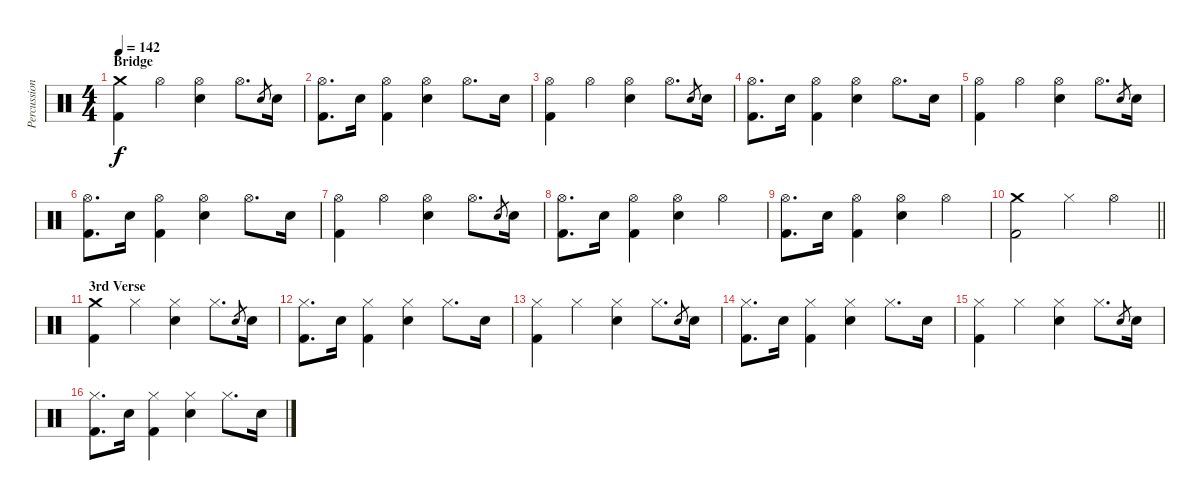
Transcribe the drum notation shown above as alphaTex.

\track ("Percussions" "Percussion") {instrument percussion}
\staff {score}
\articulation defaults
\ts (4 4)
\section ("" "Bridge")
\tempo 142
\clef neutral
\ks c
("Crash medium (hit)" "Kick (hit) 2").4{dy f} "Hi-Hat (open)".4 ("Hi-Hat (open)" "Electric Snare (hit)").4 "Hi-Hat (open)".8{d} "Electric Snare (hit)".8{gr} "Electric Snare (hit)".16 |
("Hi-Hat (open)" "Kick (hit) 2").8{d} "Electric Snare (hit)".16 ("Hi-Hat (open)" "Kick (hit) 2").4 ("Hi-Hat (open)" "Electric Snare (hit)").4 "Hi-Hat (open)".8{d} "Electric Snare (hit)".16 |
("Hi-Hat (open)" "Kick (hit) 2").4 "Hi-Hat (open)".4 ("Hi-Hat (open)" "Electric Snare (hit)").4 "Hi-Hat (open)".8{d} "Electric Snare (hit)".8{gr} "Electric Snare (hit)".16 |
("Hi-Hat (open)" "Kick (hit) 2").8{d} "Electric Snare (hit)".16 ("Hi-Hat (open)" "Kick (hit) 2").4 ("Hi-Hat (open)" "Electric Snare (hit)").4 "Hi-Hat (open)".8{d} "Electric Snare (hit)".16 |
("Hi-Hat (open)" "Kick (hit) 2").4 "Hi-Hat (open)".4 ("Hi-Hat (open)" "Electric Snare (hit)").4 "Hi-Hat (open)".8{d} "Electric Snare (hit)".8{gr} "Electric Snare (hit)".16 |
("Hi-Hat (open)" "Kick (hit) 2").8{d} "Electric Snare (hit)".16 ("Hi-Hat (open)" "Kick (hit) 2").4 ("Hi-Hat (open)" "Electric Snare (hit)").4 "Hi-Hat (open)".8{d} "Electric Snare (hit)".16 |
("Hi-Hat (open)" "Kick (hit) 2").4 "Hi-Hat (open)".4 ("Hi-Hat (open)" "Electric Snare (hit)").4 "Hi-Hat (open)".8{d} "Electric Snare (hit)".8{gr} "Electric Snare (hit)".16 |
("Hi-Hat (open)" "Kick (hit) 2").8{d} "Electric Snare (hit)".16 ("Hi-Hat (open)" "Kick (hit) 2").4 ("Hi-Hat (open)" "Electric Snare (hit)").4 "Hi-Hat (open)".4 |
("Hi-Hat (open)" "Kick (hit) 2").8{d} "Electric Snare (hit)".16 ("Hi-Hat (open)" "Kick (hit) 2").4 ("Hi-Hat (open)" "Electric Snare (hit)").4 "Hi-Hat (open)".4 |
\barLineRight lightlight
("Crash medium (hit)" "Kick (hit) 2").2 "Hi-Hat (closed)".4 "Hi-Hat (open)".4 |
\section ("" "3rd Verse")
("Crash medium (hit)" "Kick (hit) 2").4 "Hi-Hat (closed)".4 ("Hi-Hat (closed)" "Electric Snare (hit)").4 "Hi-Hat (closed)".8{d} "Electric Snare (hit)".8{gr} "Electric Snare (hit)".16 |
("Hi-Hat (closed)" "Kick (hit) 2").8{d} "Electric Snare (hit)".16 ("Hi-Hat (closed)" "Kick (hit) 2").4 ("Hi-Hat (closed)" "Electric Snare (hit)").4 "Hi-Hat (closed)".8{d} "Electric Snare (hit)".16 |
("Hi-Hat (closed)" "Kick (hit) 2").4 "Hi-Hat (closed)".4 ("Hi-Hat (closed)" "Electric Snare (hit)").4 "Hi-Hat (closed)".8{d} "Electric Snare (hit)".8{gr} "Electric Snare (hit)".16 |
("Hi-Hat (closed)" "Kick (hit) 2").8{d} "Electric Snare (hit)".16 ("Hi-Hat (closed)" "Kick (hit) 2").4 ("Hi-Hat (closed)" "Electric Snare (hit)").4 "Hi-Hat (closed)".8{d} "Electric Snare (hit)".16 |
("Hi-Hat (closed)" "Kick (hit) 2").4 "Hi-Hat (closed)".4 ("Hi-Hat (closed)" "Electric Snare (hit)").4 "Hi-Hat (closed)".8{d} "Electric Snare (hit)".8{gr} "Electric Snare (hit)".16 |
("Hi-Hat (closed)" "Kick (hit) 2").8{d} "Electric Snare (hit)".16 ("Hi-Hat (closed)" "Kick (hit) 2").4 ("Hi-Hat (closed)" "Electric Snare (hit)").4 "Hi-Hat (closed)".8{d} "Electric Snare (hit)".16
